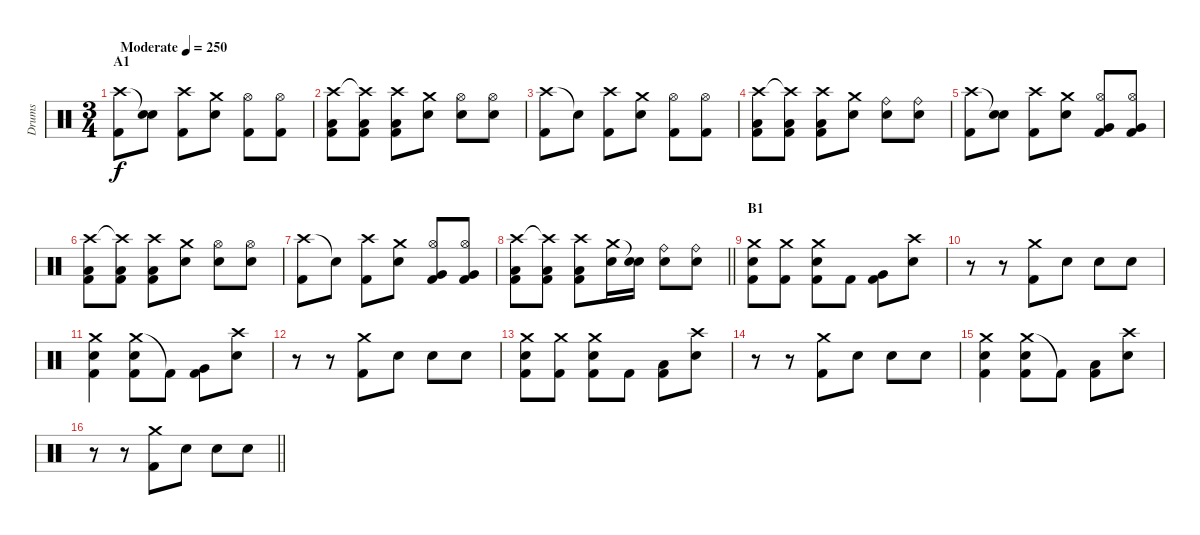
\track ("Drums" "Drums") {instrument percussion}
\staff {score}
\articulation defaults
\ts (3 4)
\section ("" "A1")
\tempo (250 "Moderate")
\clef neutral
\ks c
("Crash high (hit)" "Kick (hit) 2").8{dy f} ("Snare (hit)"{t} "Electric Snare (hit)").8 ("Crash high (hit)" "Kick (hit) 2").8 ("Crash medium (hit)" "Electric Snare (hit)").8 ("Hi-Hat (open)" "Kick (hit) 2").8 ("Hi-Hat (open)" "Kick (hit) 2").8 |
("Crash high (hit)" "Low Tom (hit)" "Kick (hit) 2").8 ("Crash high (hit)"{t} "Low Tom (hit)" "Kick (hit) 2").8 ("Crash high (hit)" "Low Tom (hit)" "Kick (hit) 2").8 ("Crash medium (hit)" "Electric Snare (hit)").8 ("Hi-Hat (open)" "Electric Snare (hit)").8 ("Hi-Hat (open)" "Electric Snare (hit)").8 |
("Crash high (hit)" "Kick (hit) 2").8 "Snare (hit)"{t}.8 ("Crash high (hit)" "Kick (hit) 2").8 ("Crash medium (hit)" "Electric Snare (hit)").8 ("Hi-Hat (open)" "Kick (hit) 2").8 ("Hi-Hat (open)" "Kick (hit) 2").8 |
("Crash high (hit)" "Low Tom (hit)" "Kick (hit) 2").8 ("Crash high (hit)"{t} "Low Tom (hit)" "Kick (hit) 2").8 ("Crash high (hit)" "Low Tom (hit)" "Kick (hit) 2").8 ("Crash medium (hit)" "Electric Snare (hit)").8 ("Ride (bell)" "Electric Snare (hit)").8 ("Ride (bell)" "Electric Snare (hit)").8 |
("Crash high (hit)" "Kick (hit) 2").8 ("Snare (hit)"{t} "Electric Snare (hit)").8 ("Crash high (hit)" "Kick (hit) 2").8 ("Crash medium (hit)" "Electric Snare (hit)").8 ("Hi-Hat (open)" "Very Low Tom (hit)" "Kick (hit) 2").8 ("Hi-Hat (open)" "Very Low Tom (hit)" "Kick (hit) 2").8 |
("Crash high (hit)" "Low Tom (hit)" "Kick (hit) 2").8 ("Crash high (hit)"{t} "Low Tom (hit)" "Kick (hit) 2").8 ("Crash high (hit)" "Low Tom (hit)" "Kick (hit) 2").8 ("Crash medium (hit)" "Electric Snare (hit)").8 ("Hi-Hat (open)" "Electric Snare (hit)").8 ("Hi-Hat (open)" "Electric Snare (hit)").8 |
("Crash high (hit)" "Kick (hit) 2").8 "Snare (hit)"{t}.8 ("Crash high (hit)" "Kick (hit) 2").8 ("Crash medium (hit)" "Electric Snare (hit)").8 ("Hi-Hat (open)" "Very Low Tom (hit)" "Kick (hit) 2").8 ("Hi-Hat (open)" "Very Low Tom (hit)" "Kick (hit) 2").8 |
\barLineRight lightlight
("Crash high (hit)" "Low Tom (hit)" "Kick (hit) 2").8 ("Crash high (hit)"{t} "Low Tom (hit)" "Kick (hit) 2").8 ("Crash high (hit)" "Low Tom (hit)" "Kick (hit) 2").8 ("Crash medium (hit)" "Electric Snare (hit)").16 ("Snare (hit)"{t} "Electric Snare (hit)").16 ("Ride (bell)" "Electric Snare (hit)").8 ("Ride (bell)" "Electric Snare (hit)").8 |
\section ("" "B1")
("Crash medium (hit)" "Electric Snare (hit)" "Kick (hit) 2").8 ("Crash medium (hit)" "Kick (hit) 2").8 ("Crash medium (hit)" "Electric Snare (hit)" "Kick (hit) 2").8 "Kick (hit) 2".8 ("Very Low Tom (hit)" "Kick (hit) 2").8 ("Crash high (hit)" "Electric Snare (hit)").8 |
r.8 r.8 ("Crash medium (hit)" "Kick (hit) 2").8 "Electric Snare (hit)".8 "Electric Snare (hit)".8 "Electric Snare (hit)".8 |
("Crash medium (hit)" "Electric Snare (hit)" "Kick (hit) 2").4 ("Crash medium (hit)" "Electric Snare (hit)" "Kick (hit) 2").8 "Kick (hit) 2"{t}.8 ("Very Low Tom (hit)" "Kick (hit) 2").8 ("Crash high (hit)" "Electric Snare (hit)").8 |
r.8 r.8 ("Crash medium (hit)" "Kick (hit) 2").8 "Electric Snare (hit)".8 "Electric Snare (hit)".8 "Electric Snare (hit)".8 |
("Crash medium (hit)" "Electric Snare (hit)" "Kick (hit) 2").8 ("Crash medium (hit)" "Kick (hit) 2").8 ("Crash medium (hit)" "Electric Snare (hit)" "Kick (hit) 2").8 "Kick (hit) 2".8 ("Low Tom (hit)" "Kick (hit) 2").8 ("Crash high (hit)" "Electric Snare (hit)").8 |
r.8 r.8 ("Crash medium (hit)" "Kick (hit) 2").8 "Electric Snare (hit)".8 "Electric Snare (hit)".8 "Electric Snare (hit)".8 |
("Crash medium (hit)" "Electric Snare (hit)" "Kick (hit) 2").4 ("Crash medium (hit)" "Electric Snare (hit)" "Kick (hit) 2").8 "Kick (hit) 2"{t}.8 ("Low Tom (hit)" "Kick (hit) 2").8 ("Crash high (hit)" "Electric Snare (hit)").8 |
\barLineRight lightlight
r.8 r.8 ("Crash medium (hit)" "Kick (hit) 2").8 "Electric Snare (hit)".8 "Electric Snare (hit)".8 "Electric Snare (hit)".8
